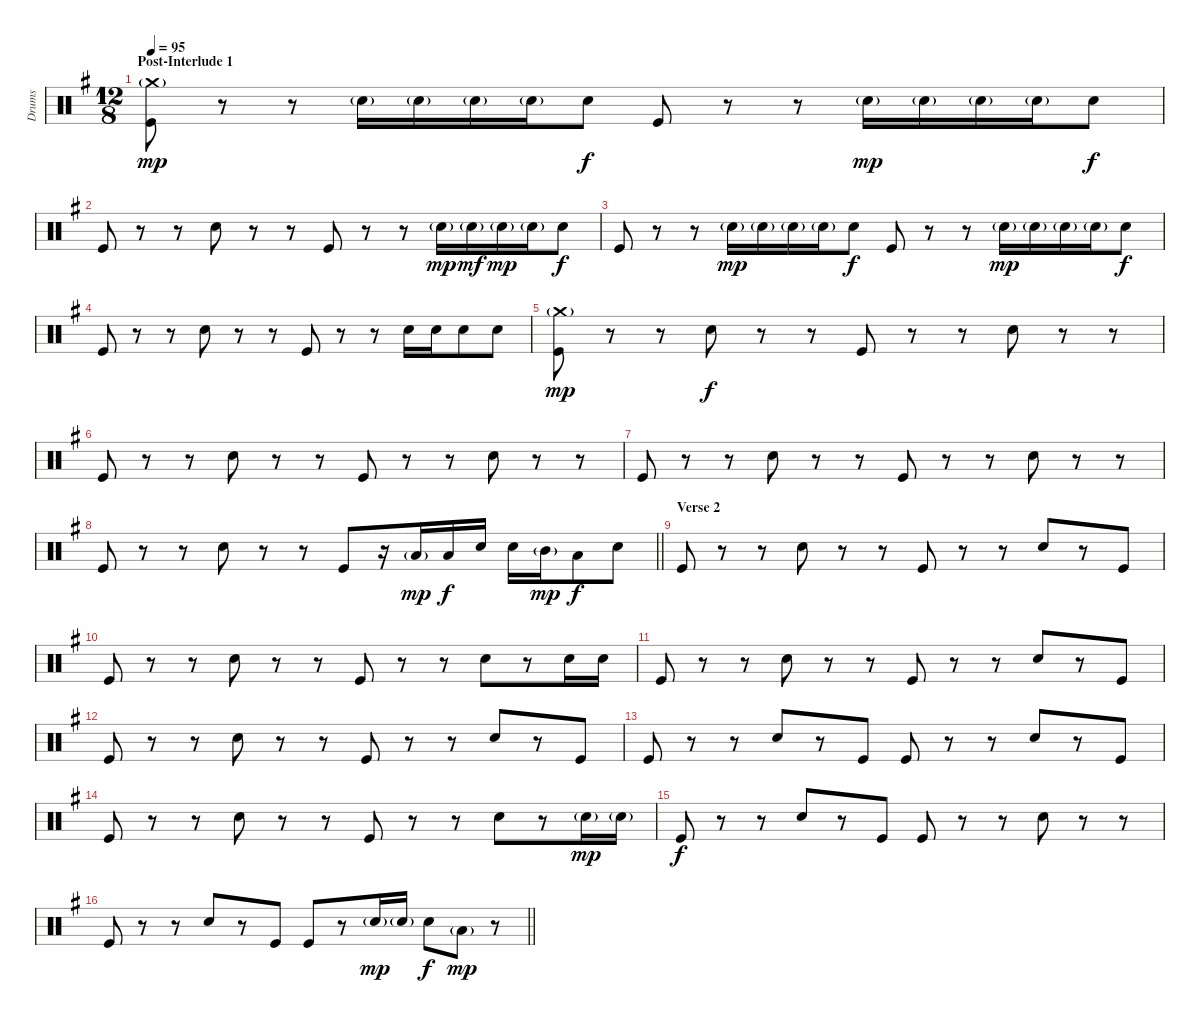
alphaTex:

\track ("Drums" "Drums") {instrument percussion}
\staff {score}
\articulation defaults
\ts (12 8)
\section ("" "Post-Interlude 1")
\tempo 95
\clef neutral
\ks eminor
("Crash medium (hit)"{g} "Kick (hit)").8{dy mp} r.8 r.8 "Snare (hit) 2"{g}.16 "Snare (hit) 2"{g}.16 "Snare (hit) 2"{g}.16 "Snare (hit) 2"{g}.16 "Snare (hit) 2".8{dy f} "Kick (hit)".8 r.8 r.8 "Snare (hit) 2"{g}.16{dy mp} "Snare (hit) 2"{g}.16 "Snare (hit) 2"{g}.16 "Snare (hit) 2"{g}.16 "Snare (hit) 2".8{dy f} |
"Kick (hit)".8 r.8 r.8 "Snare (hit) 2".8 r.8 r.8 "Kick (hit)".8 r.8 r.8 "Snare (hit) 2"{g}.16{dy mp} "Snare (hit) 2"{g}.16{dy mf} "Snare (hit) 2"{g}.16{dy mp} "Snare (hit) 2"{g}.16 "Snare (hit) 2".8{dy f} |
"Kick (hit)".8 r.8 r.8 "Snare (hit) 2"{g}.16{dy mp} "Snare (hit) 2"{g}.16 "Snare (hit) 2"{g}.16 "Snare (hit) 2"{g}.16 "Snare (hit) 2".8{dy f} "Kick (hit)".8 r.8 r.8 "Snare (hit) 2"{g}.16{dy mp} "Snare (hit) 2"{g}.16 "Snare (hit) 2"{g}.16 "Snare (hit) 2"{g}.16 "Snare (hit) 2".8{dy f} |
"Kick (hit)".8 r.8 r.8 "Snare (hit) 2".8 r.8 r.8 "Kick (hit)".8 r.8 r.8 "Snare (hit) 2".16 "Snare (hit) 2".16 "Snare (hit) 2".8 "Snare (hit) 2".8 |
("Crash medium (hit)"{g} "Kick (hit)").8{dy mp} r.8 r.8 "Snare (hit) 2".8{dy f} r.8 r.8 "Kick (hit)".8 r.8 r.8 "Snare (hit) 2".8 r.8 r.8 |
"Kick (hit)".8 r.8 r.8 "Snare (hit) 2".8 r.8 r.8 "Kick (hit)".8 r.8 r.8 "Snare (hit) 2".8 r.8 r.8 |
"Kick (hit)".8 r.8 r.8 "Snare (hit) 2".8 r.8 r.8 "Kick (hit)".8 r.8 r.8 "Snare (hit) 2".8 r.8 r.8 |
\barLineRight lightlight "Kick (hit)".8
r.8 r.8 "Snare (hit) 2".8 r.8 r.8 "Kick (hit)".8 r.16 "Low Tom (hit)"{g}.16{dy mp} "Low Tom (hit)".16{dy f} "Snare (hit) 2".16 "Snare (hit) 2".16 "Mid Tom (hit)"{g}.16{dy mp} "Low Tom (hit)".8{dy f} "Snare (hit) 2".8 |
\section ("" "Verse 2")
"Kick (hit)".8 r.8 r.8 "Snare (hit) 2".8 r.8 r.8 "Kick (hit)".8 r.8 r.8 "Snare (hit) 2".8 r.8 "Kick (hit)".8 |
"Kick (hit)".8 r.8 r.8 "Snare (hit) 2".8 r.8 r.8 "Kick (hit)".8 r.8 r.8 "Snare (hit) 2".8 r.8 "Snare (hit) 2".16 "Snare (hit) 2".16 |
"Kick (hit)".8 r.8 r.8 "Snare (hit) 2".8 r.8 r.8 "Kick (hit)".8 r.8 r.8 "Snare (hit) 2".8 r.8 "Kick (hit)".8 |
"Kick (hit)".8 r.8 r.8 "Snare (hit) 2".8 r.8 r.8 "Kick (hit)".8 r.8 r.8 "Snare (hit) 2".8 r.8 "Kick (hit)".8 |
"Kick (hit)".8 r.8 r.8 "Snare (hit) 2".8 r.8 "Kick (hit)".8 "Kick (hit)".8 r.8 r.8 "Snare (hit) 2".8 r.8 "Kick (hit)".8 |
"Kick (hit)".8 r.8 r.8 "Snare (hit) 2".8 r.8 r.8 "Kick (hit)".8 r.8 r.8 "Snare (hit) 2".8 r.8 "Snare (hit) 2"{g}.16{dy mp} "Snare (hit) 2"{g}.16 |
"Kick (hit)".8{dy f} r.8 r.8 "Snare (hit) 2".8 r.8 "Kick (hit)".8 "Kick (hit)".8 r.8 r.8 "Snare (hit) 2".8 r.8 r.8 |
\barLineRight lightlight "Kick (hit)".8
r.8 r.8 "Snare (hit) 2".8 r.8 "Kick (hit)".8 "Kick (hit)".8 r.8 "Snare (hit) 2"{g}.16{dy mp} "Snare (hit) 2"{g}.16 "Snare (hit) 2".8{dy f} "Low Tom (hit)"{g}.8{dy mp} r.8
